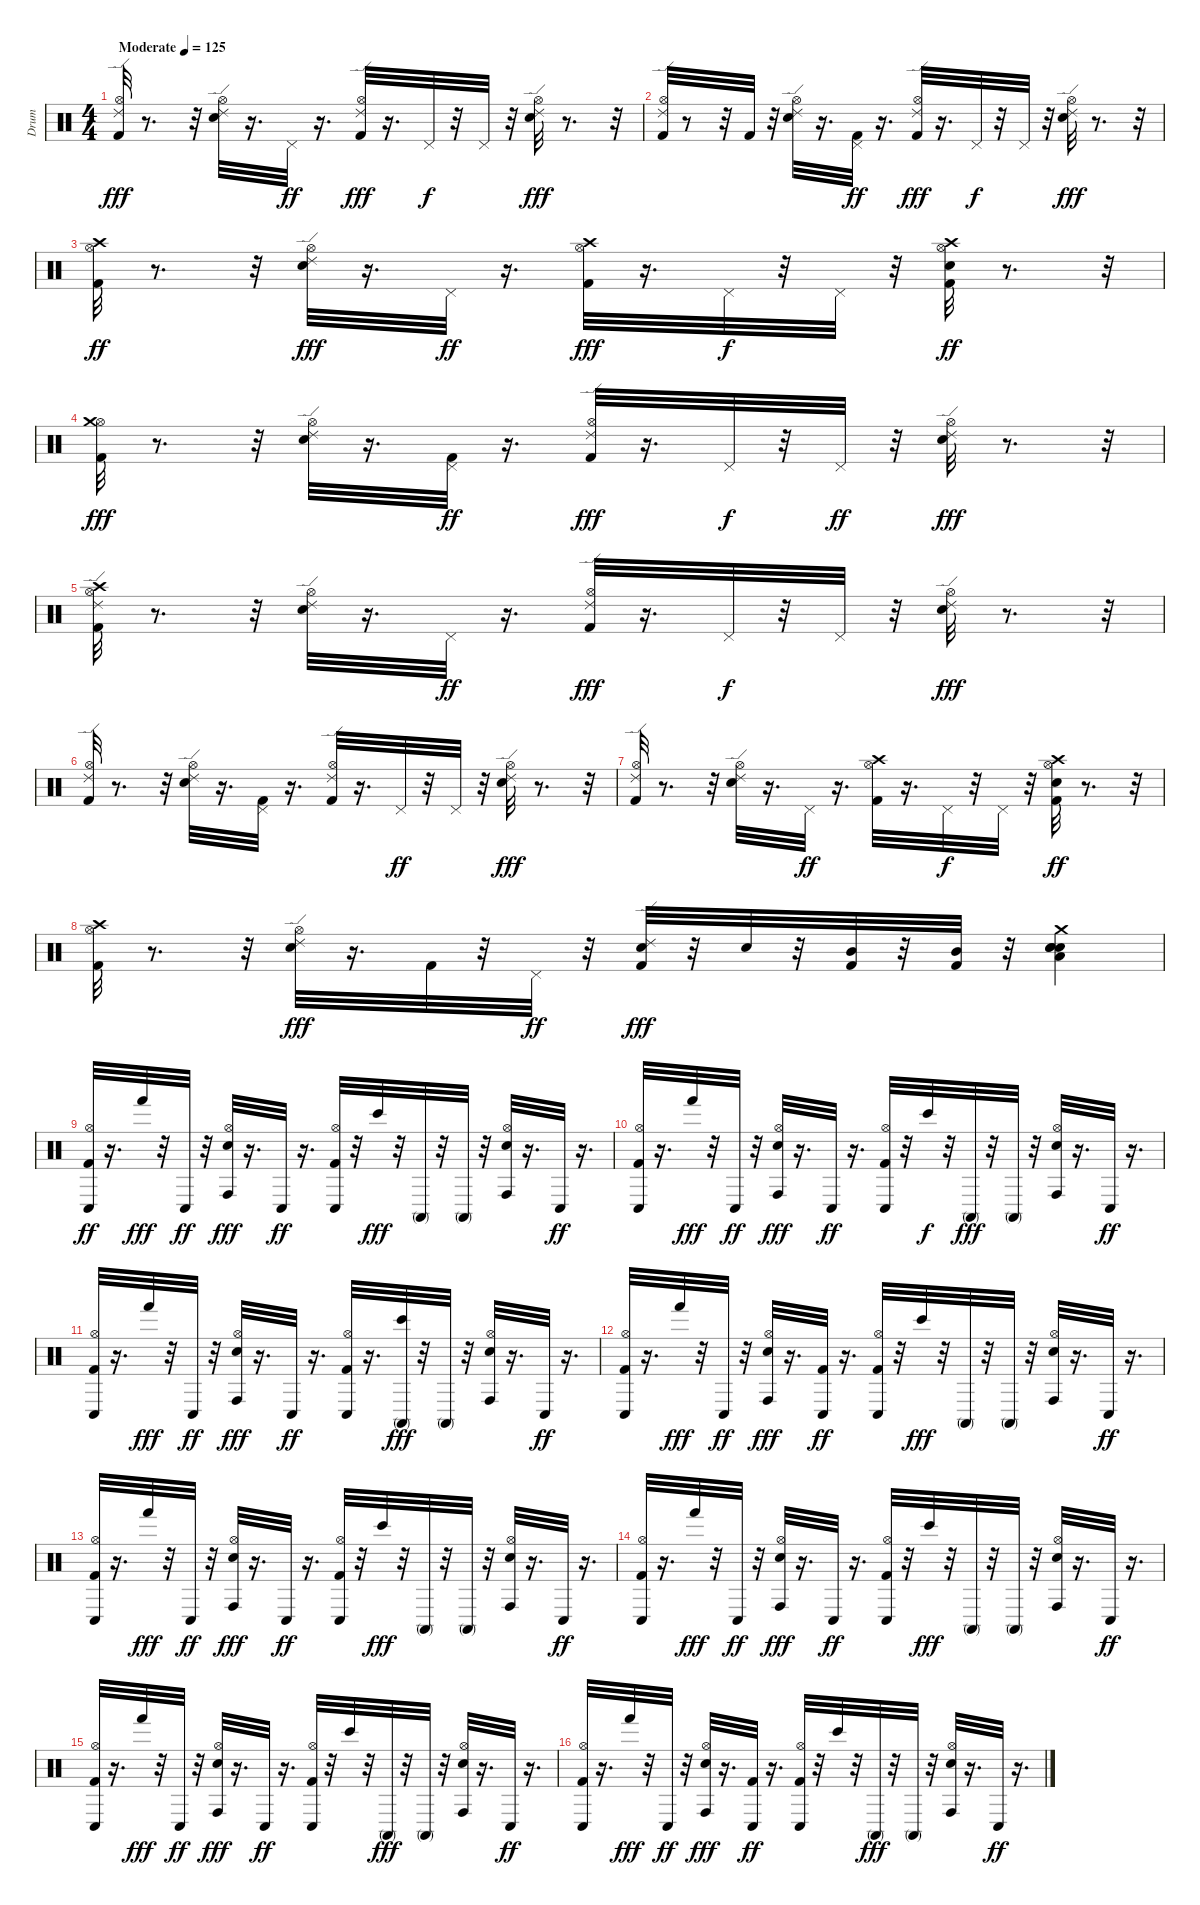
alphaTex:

\track ("Drum" "Drum") {instrument percussion}
\staff {score}
\articulation defaults
\ts (4 4)
\tempo (125 "Moderate")
\clef neutral
\ks c
("Kick (hit) 2" "Hi-Hat (open)" "Ride (edge) 2").32{dy fff} r.8{d} r.32 ("Hi-Hat (open)" "Electric Snare (hit)" "Ride (edge) 2").32 r.16{d} "Pedal Hi-Hat (hit)".32{dy ff} r.16{d} ("Kick (hit) 2" "Hi-Hat (open)" "Ride (edge) 2").32{dy fff} r.16{d} "Pedal Hi-Hat (hit)".32{dy f} r.32 "Pedal Hi-Hat (hit)".32 r.32 ("Hi-Hat (open)" "Electric Snare (hit)" "Ride (edge) 2").32{dy fff} r.8{d} r.32 |
("Kick (hit) 2" "Hi-Hat (open)" "Ride (edge) 2").32 r.8 r.32 "Kick (hit) 2".32 r.32 ("Hi-Hat (open)" "Electric Snare (hit)" "Ride (edge) 2").32 r.16{d} ("Kick (hit) 2" "Pedal Hi-Hat (hit)").32{dy ff} r.16{d} ("Kick (hit) 2" "Hi-Hat (open)" "Ride (edge) 2").32{dy fff} r.16{d} "Pedal Hi-Hat (hit)".32{dy f} r.32 "Pedal Hi-Hat (hit)".32 r.32 ("Hi-Hat (open)" "Electric Snare (hit)" "Ride (edge) 2").32{dy fff} r.8{d} r.32 |
("Kick (hit) 2" "Hi-Hat (open)" "Crash high (hit)").32{dy ff} r.8{d} r.32 ("Hi-Hat (open)" "Electric Snare (hit)" "Ride (edge) 2").32{dy fff} r.16{d} "Pedal Hi-Hat (hit)".32{dy ff} r.16{d} ("Kick (hit) 2" "Hi-Hat (open)" "Crash high (hit)").32{dy fff} r.16{d} "Pedal Hi-Hat (hit)".32{dy f} r.32 "Pedal Hi-Hat (hit)".32 r.32 ("Kick (hit) 2" "Hi-Hat (open)" "Electric Snare (hit)" "Crash high (hit)").32{dy ff} r.8{d} r.32 |
("Kick (hit) 2" "Hi-Hat (open)" "Crash medium (hit)").32{dy fff} r.8{d} r.32 ("Hi-Hat (open)" "Electric Snare (hit)" "Ride (edge) 2").32 r.16{d} ("Kick (hit) 2" "Pedal Hi-Hat (hit)").32{dy ff} r.16{d} ("Kick (hit) 2" "Hi-Hat (open)" "Ride (edge) 2").32{dy fff} r.16{d} "Pedal Hi-Hat (hit)".32{dy f} r.32 "Pedal Hi-Hat (hit)".32{dy ff} r.32 ("Hi-Hat (open)" "Electric Snare (hit)" "Ride (edge) 2").32{dy fff} r.8{d} r.32 |
("Kick (hit) 2" "Hi-Hat (open)" "Crash high (hit)" "Ride (edge) 2").32 r.8{d} r.32 ("Hi-Hat (open)" "Electric Snare (hit)" "Ride (edge) 2").32 r.16{d} "Pedal Hi-Hat (hit)".32{dy ff} r.16{d} ("Kick (hit) 2" "Hi-Hat (open)" "Ride (edge) 2").32{dy fff} r.16{d} "Pedal Hi-Hat (hit)".32{dy f} r.32 "Pedal Hi-Hat (hit)".32 r.32 ("Hi-Hat (open)" "Electric Snare (hit)" "Ride (edge) 2").32{dy fff} r.8{d} r.32 |
("Kick (hit) 2" "Hi-Hat (open)" "Ride (edge) 2").32 r.8{d} r.32 ("Hi-Hat (open)" "Electric Snare (hit)" "Ride (edge) 2").32 r.16{d} ("Kick (hit) 2" "Pedal Hi-Hat (hit)").32 r.16{d} ("Kick (hit) 2" "Hi-Hat (open)" "Ride (edge) 2").32 r.16{d} "Pedal Hi-Hat (hit)".32{dy ff} r.32 "Pedal Hi-Hat (hit)".32 r.32 ("Hi-Hat (open)" "Electric Snare (hit)" "Ride (edge) 2").32{dy fff} r.8{d} r.32 |
("Kick (hit) 2" "Hi-Hat (open)" "Ride (edge) 2").32 r.8{d} r.32 ("Hi-Hat (open)" "Electric Snare (hit)" "Ride (edge) 2").32 r.16{d} "Pedal Hi-Hat (hit)".32{dy ff} r.16{d} ("Kick (hit) 2" "Hi-Hat (open)" "Crash high (hit)").32 r.16{d} "Pedal Hi-Hat (hit)".32{dy f} r.32 "Pedal Hi-Hat (hit)".32 r.32 ("Kick (hit) 2" "Hi-Hat (open)" "Electric Snare (hit)" "Crash high (hit)").32{dy ff} r.8{d} r.32 |
("Kick (hit) 2" "Hi-Hat (open)" "Crash high (hit)").32 r.8{d} r.32 ("Hi-Hat (open)" "Electric Snare (hit)" "Ride (edge) 2").32{dy fff} r.16{d} "Kick (hit) 2".32 r.32 "Pedal Hi-Hat (hit)".32{dy ff} r.32 ("Kick (hit) 2" "Electric Snare (hit)" "Ride (edge) 2").32{dy fff} r.32 "Electric Snare (hit)".32 r.32 ("Kick (hit) 2" "Mid Tom (hit)").32 r.32 ("Kick (hit) 2" "Mid Tom (hit)").32 r.32 ("Electric Snare (hit)" "Low Tom (hit)" "Electric Snare (hit)" "Crash medium (hit)" "Electric Snare (hit)").4 |
("Kick (hit) 2" "Hi-Hat (open)" "Conga low (hit)").32{dy ff} r.16{d} "Hand (hit)".32{dy fff} r.32 "Conga low (hit)".32{dy ff} r.32 ("Hi-Hat (open)" "Conga high (hit)" "Electric Snare (hit)").32{dy fff} r.16{d} "Conga low (hit)".32{dy ff} r.16{d} ("Kick (hit) 2" "Hi-Hat (open)" "Conga low (hit)").32 r.32 "Bongo High (hit)".32{dy fff} r.32 "Conga high (mute)".32 r.32 "Conga high (mute)".32 r.32 ("Hi-Hat (open)" "Conga high (hit)" "Electric Snare (hit)").32 r.16{d} "Conga low (hit)".32{dy ff} r.16{d} |
("Kick (hit) 2" "Hi-Hat (open)" "Conga low (hit)").32 r.16{d} "Hand (hit)".32{dy fff} r.32 "Conga low (hit)".32{dy ff} r.32 ("Hi-Hat (open)" "Conga high (hit)" "Electric Snare (hit)").32{dy fff} r.16{d} "Conga low (hit)".32{dy ff} r.16{d} ("Kick (hit) 2" "Hi-Hat (open)" "Conga low (hit)").32 r.32 "Bongo High (hit)".32{dy f} r.32 "Conga high (mute)".32{dy fff} r.32 "Conga high (mute)".32 r.32 ("Hi-Hat (open)" "Conga high (hit)" "Electric Snare (hit)").32 r.16{d} "Conga low (hit)".32{dy ff} r.16{d} |
("Kick (hit) 2" "Hi-Hat (open)" "Conga low (hit)").32 r.16{d} "Hand (hit)".32{dy fff} r.32 "Conga low (hit)".32{dy ff} r.32 ("Hi-Hat (open)" "Conga high (hit)" "Electric Snare (hit)").32{dy fff} r.16{d} "Conga low (hit)".32{dy ff} r.16{d} ("Kick (hit) 2" "Hi-Hat (open)" "Conga low (hit)").32 r.16{d} ("Bongo High (hit)" "Conga high (mute)").32{dy fff} r.32 "Conga high (mute)".32 r.32 ("Hi-Hat (open)" "Conga high (hit)" "Electric Snare (hit)").32 r.16{d} "Conga low (hit)".32{dy ff} r.16{d} |
("Kick (hit) 2" "Hi-Hat (open)" "Conga low (hit)").32 r.16{d} "Hand (hit)".32{dy fff} r.32 "Conga low (hit)".32{dy ff} r.32 ("Hi-Hat (open)" "Conga high (hit)" "Electric Snare (hit)").32{dy fff} r.16{d} ("Kick (hit) 2" "Conga low (hit)").32{dy ff} r.16{d} ("Kick (hit) 2" "Hi-Hat (open)" "Conga low (hit)").32 r.32 "Bongo High (hit)".32{dy fff} r.32 "Conga high (mute)".32 r.32 "Conga high (mute)".32 r.32 ("Hi-Hat (open)" "Conga high (hit)" "Electric Snare (hit)").32 r.16{d} "Conga low (hit)".32{dy ff} r.16{d} |
("Kick (hit) 2" "Hi-Hat (open)" "Conga low (hit)").32 r.16{d} "Hand (hit)".32{dy fff} r.32 "Conga low (hit)".32{dy ff} r.32 ("Hi-Hat (open)" "Conga high (hit)" "Electric Snare (hit)").32{dy fff} r.16{d} "Conga low (hit)".32{dy ff} r.16{d} ("Kick (hit) 2" "Hi-Hat (open)" "Conga low (hit)").32 r.32 "Bongo High (hit)".32{dy fff} r.32 "Conga high (mute)".32 r.32 "Conga high (mute)".32 r.32 ("Hi-Hat (open)" "Conga high (hit)" "Electric Snare (hit)").32 r.16{d} "Conga low (hit)".32{dy ff} r.16{d} |
("Kick (hit) 2" "Hi-Hat (open)" "Conga low (hit)").32 r.16{d} "Hand (hit)".32{dy fff} r.32 "Conga low (hit)".32{dy ff} r.32 ("Hi-Hat (open)" "Conga high (hit)" "Electric Snare (hit)").32{dy fff} r.16{d} "Conga low (hit)".32{dy ff} r.16{d} ("Kick (hit) 2" "Hi-Hat (open)" "Conga low (hit)").32 r.32 "Bongo High (hit)".32{dy fff} r.32 "Conga high (mute)".32 r.32 "Conga high (mute)".32 r.32 ("Hi-Hat (open)" "Conga high (hit)" "Electric Snare (hit)").32 r.16{d} "Conga low (hit)".32{dy ff} r.16{d} |
("Kick (hit) 2" "Hi-Hat (open)" "Conga low (hit)").32 r.16{d} "Hand (hit)".32{dy fff} r.32 "Conga low (hit)".32{dy ff} r.32 ("Hi-Hat (open)" "Conga high (hit)" "Electric Snare (hit)").32{dy fff} r.16{d} "Conga low (hit)".32{dy ff} r.16{d} ("Kick (hit) 2" "Hi-Hat (open)" "Conga low (hit)").32 r.32 "Bongo High (hit)".32 r.32 "Conga high (mute)".32{dy fff} r.32 "Conga high (mute)".32 r.32 ("Hi-Hat (open)" "Conga high (hit)" "Electric Snare (hit)").32 r.16{d} "Conga low (hit)".32{dy ff} r.16{d} |
("Kick (hit) 2" "Hi-Hat (open)" "Conga low (hit)").32 r.16{d} "Hand (hit)".32{dy fff} r.32 "Conga low (hit)".32{dy ff} r.32 ("Hi-Hat (open)" "Conga high (hit)" "Electric Snare (hit)").32{dy fff} r.16{d} ("Kick (hit) 2" "Conga low (hit)").32{dy ff} r.16{d} ("Kick (hit) 2" "Hi-Hat (open)" "Conga low (hit)").32 r.32 "Bongo High (hit)".32 r.32 "Conga high (mute)".32{dy fff} r.32 "Conga high (mute)".32 r.32 ("Hi-Hat (open)" "Conga high (hit)" "Electric Snare (hit)").32 r.16{d} "Conga low (hit)".32{dy ff} r.16{d}
